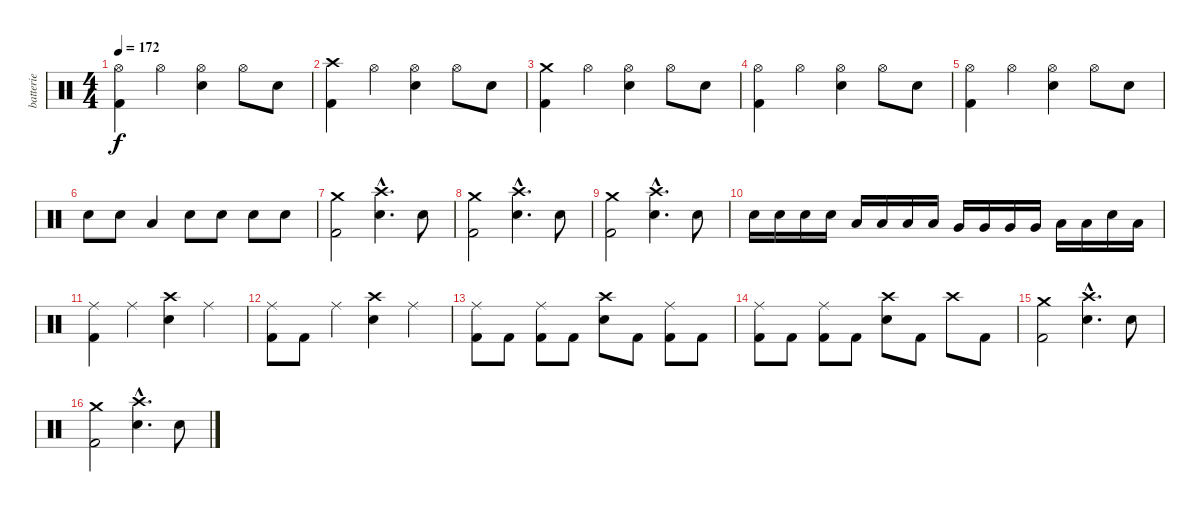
\track ("batterie" "batterie") {instrument percussion}
\staff {score}
\articulation defaults
\ts (4 4)
\tempo 172
\clef neutral
\ks c
("Hi-Hat (open)" "Kick (hit) 2").4{dy f} "Hi-Hat (open)".4 ("Electric Snare (hit)" "Hi-Hat (open)").4 "Hi-Hat (open)".8 "Electric Snare (hit)".8 |
("Crash high (hit)" "Kick (hit) 2").4 "Hi-Hat (open)".4 ("Electric Snare (hit)" "Hi-Hat (open)").4 "Hi-Hat (open)".8 "Electric Snare (hit)".8 |
("Crash medium (hit)" "Kick (hit) 2").4 "Hi-Hat (open)".4 ("Electric Snare (hit)" "Hi-Hat (open)").4 "Hi-Hat (open)".8 "Electric Snare (hit)".8 |
("Hi-Hat (open)" "Kick (hit) 2").4 "Hi-Hat (open)".4 ("Electric Snare (hit)" "Hi-Hat (open)").4 "Hi-Hat (open)".8 "Electric Snare (hit)".8 |
("Hi-Hat (open)" "Kick (hit) 2").4 "Hi-Hat (open)".4 ("Electric Snare (hit)" "Hi-Hat (open)").4 "Hi-Hat (open)".8 "Electric Snare (hit)".8 |
"Electric Snare (hit)".8 "Electric Snare (hit)".8 "Low Tom (hit)".4 "Electric Snare (hit)".8 "Electric Snare (hit)".8 "Electric Snare (hit)".8 "Electric Snare (hit)".8 |
("Kick (hit) 2" "Crash medium (hit)").2 ("Crash high (hit)"{hac} "Electric Snare (hit)"{hac}).4{d} "Electric Snare (hit)".8 |
("Kick (hit) 2" "Crash medium (hit)").2 ("Crash high (hit)"{hac} "Electric Snare (hit)"{hac}).4{d} "Electric Snare (hit)".8 |
("Kick (hit) 2" "Crash medium (hit)").2 ("Crash high (hit)"{hac} "Electric Snare (hit)"{hac}).4{d} "Electric Snare (hit)".8 |
"Electric Snare (hit)".16 "Electric Snare (hit)".16 "Electric Snare (hit)".16 "Electric Snare (hit)".16 "Low Tom (hit)".16 "Low Tom (hit)".16 "Low Tom (hit)".16 "Low Tom (hit)".16 "Very Low Tom (hit)".16 "Very Low Tom (hit)".16 "Very Low Tom (hit)".16 "Very Low Tom (hit)".16 "Low Floor Tom (hit)".16 "Low Floor Tom (hit)".16 "Snare (hit)".16 "Low Floor Tom (hit)".16 |
("Ride (middle)" "Kick (hit) 2").4 "Ride (middle)".4 ("Crash high (hit)" "Electric Snare (hit)").4 "Ride (middle)".4 |
("Ride (middle)" "Kick (hit) 2").8 "Kick (hit) 2".8 "Ride (middle)".4 ("Crash high (hit)" "Electric Snare (hit)").4 "Ride (middle)".4 |
("Ride (middle)" "Kick (hit) 2").8 "Kick (hit) 2".8 ("Ride (middle)" "Kick (hit) 2").8 "Kick (hit) 2".8 ("Crash high (hit)" "Electric Snare (hit)").8 "Kick (hit) 2".8 ("Ride (middle)" "Kick (hit) 2").8 "Kick (hit) 2".8 |
("Kick (hit) 2" "Ride (middle)").8 "Kick (hit) 2".8 ("Kick (hit) 2" "Ride (middle)").8 "Kick (hit) 2".8 ("Crash high (hit)" "Electric Snare (hit)").8 "Kick (hit) 2".8 "Crash high (hit)".8 "Kick (hit) 2".8 |
("Kick (hit) 2" "Crash medium (hit)").2 ("Crash high (hit)"{hac} "Electric Snare (hit)"{hac}).4{d} "Electric Snare (hit)".8 |
("Kick (hit) 2" "Crash medium (hit)").2 ("Crash high (hit)"{hac} "Electric Snare (hit)"{hac}).4{d} "Electric Snare (hit)".8
